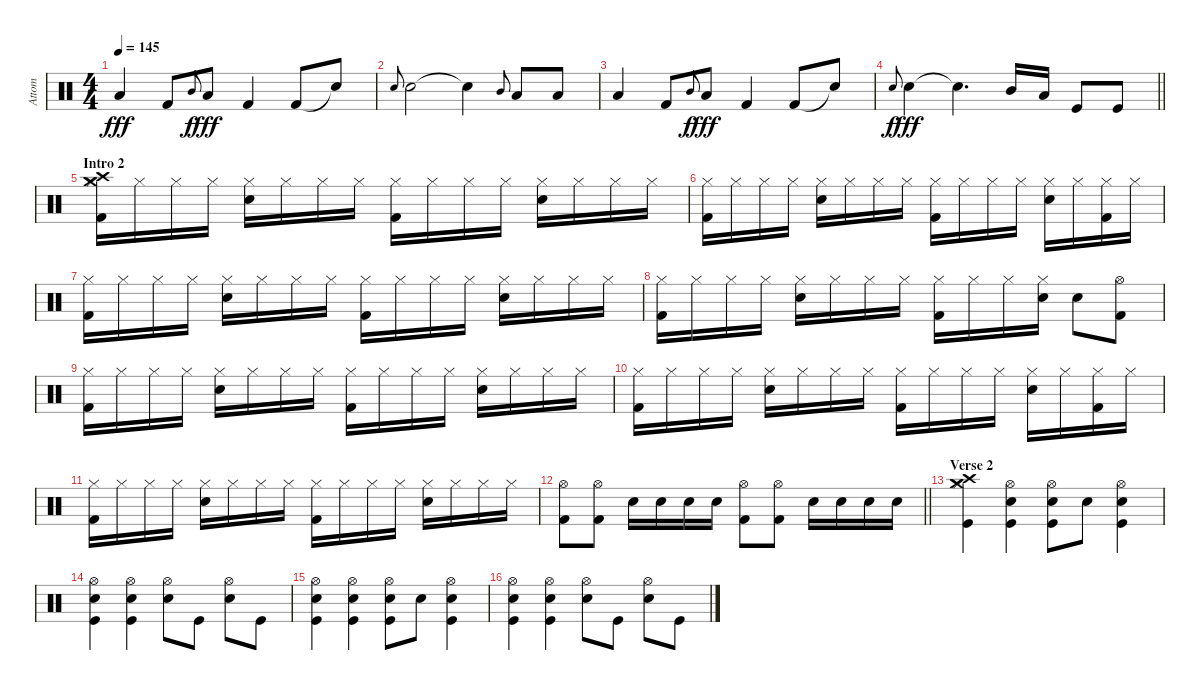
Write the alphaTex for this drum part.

\track ("Attom" "Attom") {instrument percussion}
\staff {score}
\articulation defaults
\ts (4 4)
\tempo 145
\clef neutral
\ks c "Low Floor Tom (hit)".4{dy fff} "Kick (hit) 2".8 "Mid Tom (hit)".8{gr onbeat dy f} "Low Floor Tom (hit)".8{dy fff} "Kick (hit) 2".4 "Kick (hit) 2".8 "Snare (hit)"{t}.8
|
"Snare (hit) 2".8{gr onbeat} "Snare (hit) 2".2 "Snare (hit)"{t}.4 "Mid Tom (hit)".8{gr onbeat} "Low Floor Tom (hit)".8 "Low Floor Tom (hit)".8 |
"Low Floor Tom (hit)".4 "Kick (hit) 2".8 "Mid Tom (hit)".8{gr onbeat dy f} "Low Floor Tom (hit)".8{dy fff} "Kick (hit) 2".4 "Kick (hit) 2".8 "Snare (hit)"{t}.8 |
\barLineRight lightlight "Snare (hit) 2".8{gr onbeat dy f} "Snare (hit) 2".4{dy fff} "Snare (hit)"{t}.4{d} "Mid Tom (hit)".16 "Low Floor Tom (hit)".16 "Kick (hit)".8 "Kick (hit)".8
|
\section ("" "Intro 2")
("Hi-Hat (closed)" "Crash high (hit)" "Crash medium (hit)" "Kick (hit) 2").16 "Hi-Hat (closed)".16 "Hi-Hat (closed)".16 "Hi-Hat (closed)".16 ("Hi-Hat (closed)" "Snare (hit) 2").16 "Hi-Hat (closed)".16 "Hi-Hat (closed)".16 "Hi-Hat (closed)".16 ("Hi-Hat (closed)" "Kick (hit) 2").16 "Hi-Hat (closed)".16 "Hi-Hat (closed)".16 "Hi-Hat (closed)".16 ("Hi-Hat (closed)" "Snare (hit) 2").16 "Hi-Hat (closed)".16 "Hi-Hat (closed)".16 "Hi-Hat (closed)".16 |
("Hi-Hat (closed)" "Kick (hit) 2").16 "Hi-Hat (closed)".16 "Hi-Hat (closed)".16 "Hi-Hat (closed)".16 ("Hi-Hat (closed)" "Snare (hit) 2").16 "Hi-Hat (closed)".16 "Hi-Hat (closed)".16 "Hi-Hat (closed)".16 ("Hi-Hat (closed)" "Kick (hit) 2").16 "Hi-Hat (closed)".16 "Hi-Hat (closed)".16 "Hi-Hat (closed)".16 ("Hi-Hat (closed)" "Snare (hit) 2").16 "Hi-Hat (closed)".16 ("Hi-Hat (closed)" "Kick (hit) 2").16 "Hi-Hat (closed)".16 |
("Hi-Hat (closed)" "Kick (hit) 2").16 "Hi-Hat (closed)".16 "Hi-Hat (closed)".16 "Hi-Hat (closed)".16 ("Hi-Hat (closed)" "Snare (hit) 2").16 "Hi-Hat (closed)".16 "Hi-Hat (closed)".16 "Hi-Hat (closed)".16 ("Hi-Hat (closed)" "Kick (hit) 2").16 "Hi-Hat (closed)".16 "Hi-Hat (closed)".16 "Hi-Hat (closed)".16 ("Hi-Hat (closed)" "Snare (hit) 2").16 "Hi-Hat (closed)".16 "Hi-Hat (closed)".16 "Hi-Hat (closed)".16 |
("Hi-Hat (closed)" "Kick (hit) 2").16 "Hi-Hat (closed)".16 "Hi-Hat (closed)".16 "Hi-Hat (closed)".16 ("Hi-Hat (closed)" "Snare (hit) 2").16 "Hi-Hat (closed)".16 "Hi-Hat (closed)".16 "Hi-Hat (closed)".16 ("Hi-Hat (closed)" "Kick (hit) 2").16 "Hi-Hat (closed)".16 "Hi-Hat (closed)".16 ("Hi-Hat (closed)" "Snare (hit) 2").16 "Snare (hit) 2".8 ("Hi-Hat (open)" "Kick (hit) 2").8 |
("Hi-Hat (closed)" "Kick (hit) 2").16 "Hi-Hat (closed)".16 "Hi-Hat (closed)".16 "Hi-Hat (closed)".16 ("Hi-Hat (closed)" "Snare (hit) 2").16 "Hi-Hat (closed)".16 "Hi-Hat (closed)".16 "Hi-Hat (closed)".16 ("Hi-Hat (closed)" "Kick (hit) 2").16 "Hi-Hat (closed)".16 "Hi-Hat (closed)".16 "Hi-Hat (closed)".16 ("Hi-Hat (closed)" "Snare (hit) 2").16 "Hi-Hat (closed)".16 "Hi-Hat (closed)".16 "Hi-Hat (closed)".16 |
("Hi-Hat (closed)" "Kick (hit) 2").16 "Hi-Hat (closed)".16 "Hi-Hat (closed)".16 "Hi-Hat (closed)".16 ("Hi-Hat (closed)" "Snare (hit) 2").16 "Hi-Hat (closed)".16 "Hi-Hat (closed)".16 "Hi-Hat (closed)".16 ("Hi-Hat (closed)" "Kick (hit) 2").16 "Hi-Hat (closed)".16 "Hi-Hat (closed)".16 "Hi-Hat (closed)".16 ("Hi-Hat (closed)" "Snare (hit) 2").16 "Hi-Hat (closed)".16 ("Hi-Hat (closed)" "Kick (hit) 2").16 "Hi-Hat (closed)".16 |
("Hi-Hat (closed)" "Kick (hit) 2").16 "Hi-Hat (closed)".16 "Hi-Hat (closed)".16 "Hi-Hat (closed)".16 ("Hi-Hat (closed)" "Snare (hit) 2").16 "Hi-Hat (closed)".16 "Hi-Hat (closed)".16 "Hi-Hat (closed)".16 ("Hi-Hat (closed)" "Kick (hit) 2").16 "Hi-Hat (closed)".16 "Hi-Hat (closed)".16 "Hi-Hat (closed)".16 ("Hi-Hat (closed)" "Snare (hit) 2").16 "Hi-Hat (closed)".16 "Hi-Hat (closed)".16 "Hi-Hat (closed)".16 |
\barLineRight lightlight
("Hi-Hat (open)" "Kick (hit) 2").8 ("Hi-Hat (open)" "Kick (hit) 2").8 "Snare (hit) 2".16 "Snare (hit) 2".16 "Snare (hit) 2".16 "Snare (hit) 2".16 ("Hi-Hat (open)" "Kick (hit) 2").8 ("Hi-Hat (open)" "Kick (hit) 2").8 "Snare (hit) 2".16 "Snare (hit) 2".16 "Snare (hit) 2".16 "Snare (hit) 2".16 |
\section ("" "Verse 2")
("Hi-Hat (closed)" "Crash medium (hit)" "Crash high (hit)" "Kick (hit)").4 ("Hi-Hat (open)" "Snare (hit) 2" "Kick (hit)").4 ("Hi-Hat (open)" "Snare (hit) 2" "Kick (hit)").8 "Snare (hit) 2".8 ("Hi-Hat (open)" "Snare (hit) 2" "Kick (hit)").4 |
("Hi-Hat (open)" "Snare (hit) 2" "Kick (hit)").4 ("Hi-Hat (open)" "Snare (hit) 2" "Kick (hit)").4 ("Hi-Hat (open)" "Snare (hit) 2").8 "Kick (hit)".8 ("Hi-Hat (open)" "Snare (hit) 2").8 "Kick (hit)".8 |
("Hi-Hat (open)" "Snare (hit) 2" "Kick (hit)").4 ("Hi-Hat (open)" "Snare (hit) 2" "Kick (hit)").4 ("Hi-Hat (open)" "Snare (hit) 2" "Kick (hit)").8 "Snare (hit) 2".8 ("Hi-Hat (open)" "Snare (hit) 2" "Kick (hit)").4 |
("Hi-Hat (open)" "Snare (hit) 2" "Kick (hit)").4 ("Hi-Hat (open)" "Snare (hit) 2" "Kick (hit)").4 ("Hi-Hat (open)" "Snare (hit) 2").8 "Kick (hit)".8 ("Hi-Hat (open)" "Snare (hit) 2").8 "Kick (hit)".8
